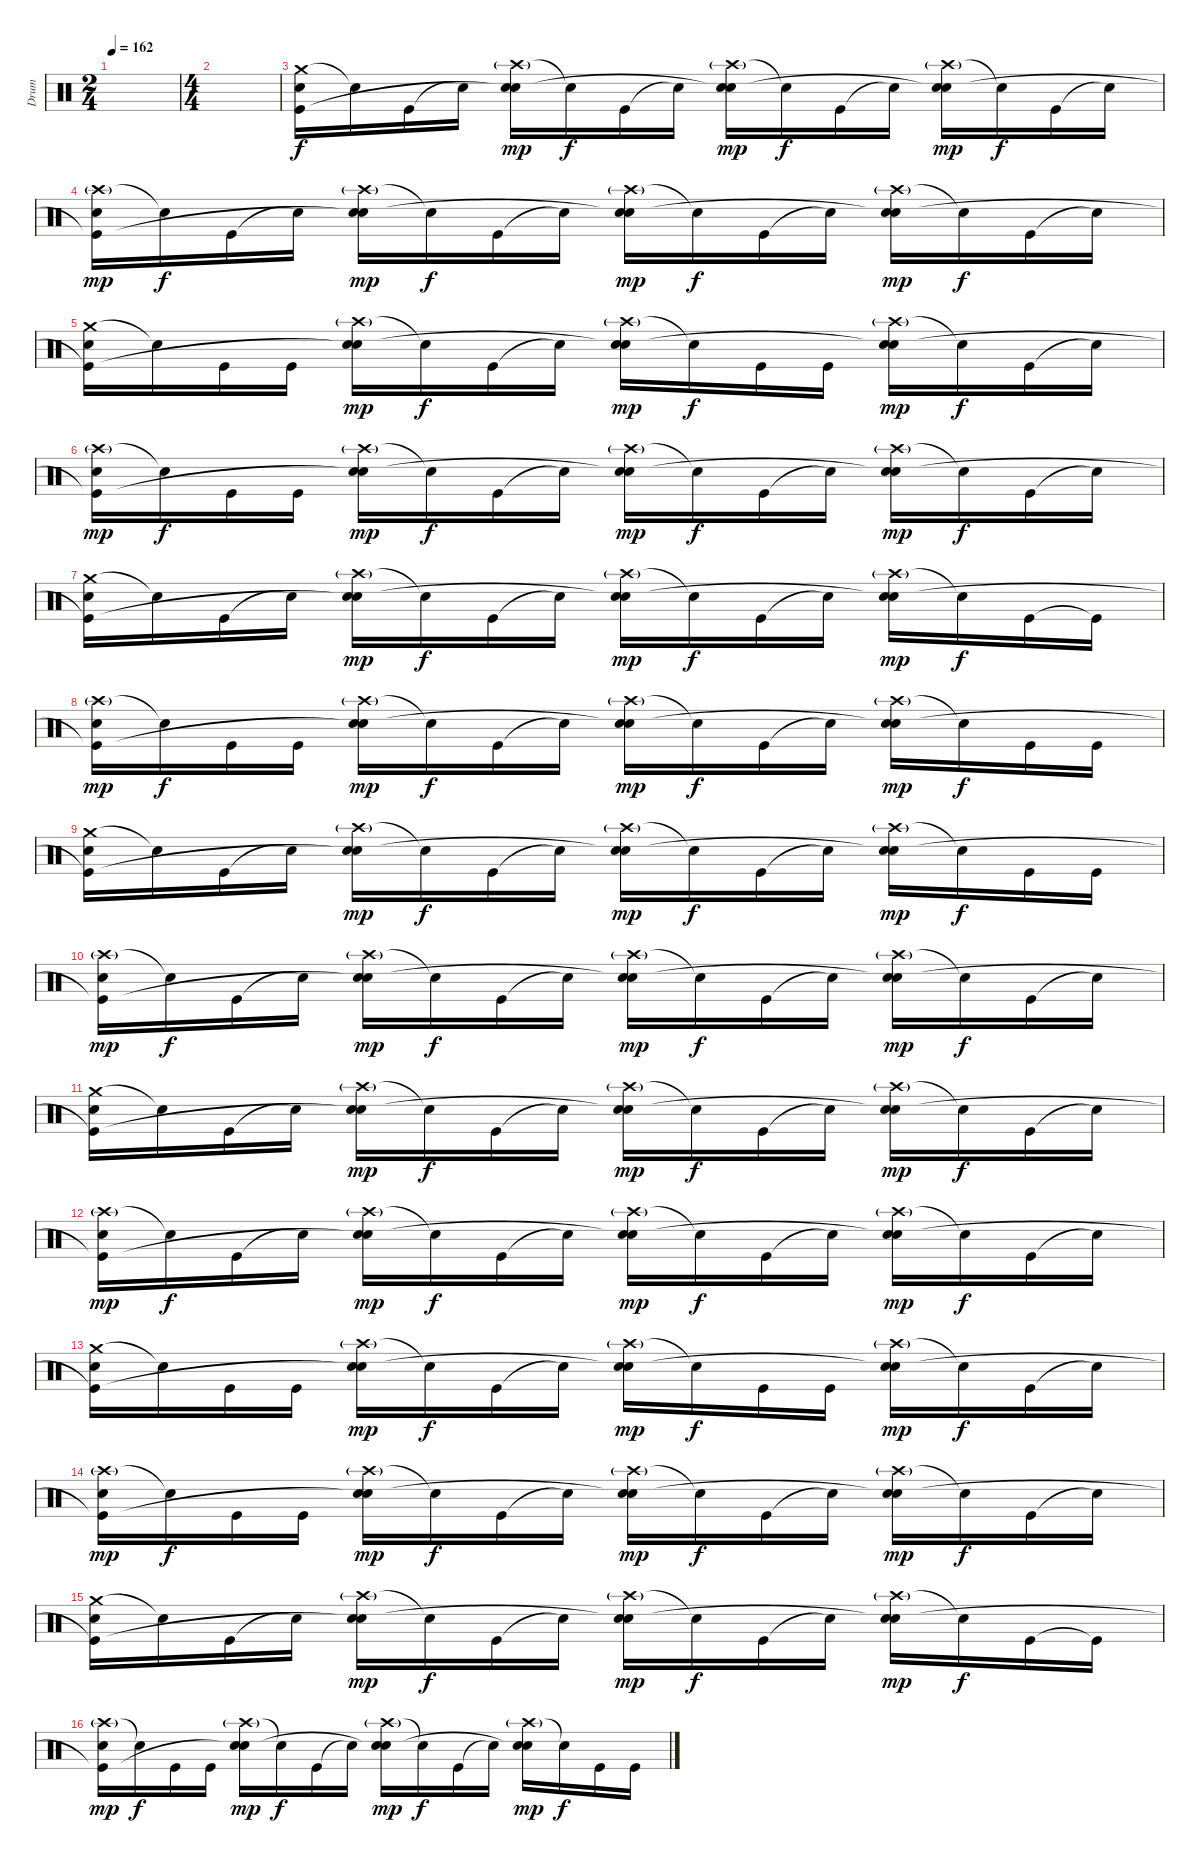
\track ("Drum" "Drum") {instrument percussion}
\staff {score}
\articulation defaults
\ts (2 4)
\tempo 162
\clef neutral
\ks c
|
\ts (4 4)
|
("Crash medium (hit)" "Electric Snare (hit)" "Kick (hit)").16 "Snare (hit)"{t}.16 "Kick (hit)".16 "Snare (hit)"{t}.16 ("Crash high (hit)"{g} "Electric Snare (hit)" "Snare (hit)"{t}).16{dy mp} "Snare (hit)"{t}.16{dy f} "Kick (hit)".16 "Snare (hit)"{t}.16 ("Crash high (hit)"{g} "Electric Snare (hit)" "Snare (hit)"{t}).16{dy mp} "Snare (hit)"{t}.16{dy f} "Kick (hit)".16 "Snare (hit)"{t}.16 ("Crash high (hit)"{g} "Electric Snare (hit)" "Snare (hit)"{t}).16{dy mp} "Snare (hit)"{t}.16{dy f} "Kick (hit)".16 "Snare (hit)"{t}.16 |
("Crash high (hit)"{g} "Electric Snare (hit)" "Kick (hit)"{t}).16{dy mp} "Snare (hit)"{t}.16{dy f} "Kick (hit)".16 "Snare (hit)"{t}.16 ("Crash high (hit)"{g} "Electric Snare (hit)" "Snare (hit)"{t}).16{dy mp} "Snare (hit)"{t}.16{dy f} "Kick (hit)".16 "Snare (hit)"{t}.16 ("Crash high (hit)"{g} "Electric Snare (hit)" "Snare (hit)"{t}).16{dy mp} "Snare (hit)"{t}.16{dy f} "Kick (hit)".16 "Snare (hit)"{t}.16 ("Crash high (hit)"{g} "Electric Snare (hit)" "Snare (hit)"{t}).16{dy mp} "Snare (hit)"{t}.16{dy f} "Kick (hit)".16 "Snare (hit)"{t}.16 |
("Crash medium (hit)" "Electric Snare (hit)" "Kick (hit)"{t}).16 "Snare (hit)"{t}.16 "Kick (hit)".16 "Kick (hit)".16 ("Crash high (hit)"{g} "Electric Snare (hit)" "Snare (hit)"{t}).16{dy mp} "Snare (hit)"{t}.16{dy f} "Kick (hit)".16 "Snare (hit)"{t}.16 ("Crash high (hit)"{g} "Electric Snare (hit)" "Snare (hit)"{t}).16{dy mp} "Snare (hit)"{t}.16{dy f} "Kick (hit)".16 "Kick (hit)".16 ("Crash high (hit)"{g} "Electric Snare (hit)" "Snare (hit)"{t}).16{dy mp} "Snare (hit)"{t}.16{dy f} "Kick (hit)".16 "Snare (hit)"{t}.16 |
("Crash high (hit)"{g} "Electric Snare (hit)" "Kick (hit)"{t}).16{dy mp} "Snare (hit)"{t}.16{dy f} "Kick (hit)".16 "Kick (hit)".16 ("Crash high (hit)"{g} "Electric Snare (hit)" "Snare (hit)"{t}).16{dy mp} "Snare (hit)"{t}.16{dy f} "Kick (hit)".16 "Snare (hit)"{t}.16 ("Crash high (hit)"{g} "Electric Snare (hit)" "Snare (hit)"{t}).16{dy mp} "Snare (hit)"{t}.16{dy f} "Kick (hit)".16 "Snare (hit)"{t}.16 ("Crash high (hit)"{g} "Electric Snare (hit)" "Snare (hit)"{t}).16{dy mp} "Snare (hit)"{t}.16{dy f} "Kick (hit)".16 "Snare (hit)"{t}.16 |
("Crash medium (hit)" "Electric Snare (hit)" "Kick (hit)"{t}).16 "Snare (hit)"{t}.16 "Kick (hit)".16 "Snare (hit)"{t}.16 ("Crash high (hit)"{g} "Electric Snare (hit)" "Snare (hit)"{t}).16{dy mp} "Snare (hit)"{t}.16{dy f} "Kick (hit)".16 "Snare (hit)"{t}.16 ("Crash high (hit)"{g} "Electric Snare (hit)" "Snare (hit)"{t}).16{dy mp} "Snare (hit)"{t}.16{dy f} "Kick (hit)".16 "Snare (hit)"{t}.16 ("Crash high (hit)"{g} "Electric Snare (hit)" "Snare (hit)"{t}).16{dy mp} "Snare (hit)"{t}.16{dy f} "Kick (hit)".16 "Kick (hit)"{t}.16 |
("Crash high (hit)"{g} "Electric Snare (hit)" "Kick (hit)"{t}).16{dy mp} "Snare (hit)"{t}.16{dy f} "Kick (hit)".16 "Kick (hit)".16 ("Crash high (hit)"{g} "Electric Snare (hit)" "Snare (hit)"{t}).16{dy mp} "Snare (hit)"{t}.16{dy f} "Kick (hit)".16 "Snare (hit)"{t}.16 ("Crash high (hit)"{g} "Electric Snare (hit)" "Snare (hit)"{t}).16{dy mp} "Snare (hit)"{t}.16{dy f} "Kick (hit)".16 "Snare (hit)"{t}.16 ("Crash high (hit)"{g} "Electric Snare (hit)" "Snare (hit)"{t}).16{dy mp} "Snare (hit)"{t}.16{dy f} "Kick (hit)".16 "Kick (hit)".16 |
("Crash medium (hit)" "Electric Snare (hit)" "Kick (hit)"{t}).16 "Snare (hit)"{t}.16 "Kick (hit)".16 "Snare (hit)"{t}.16 ("Crash high (hit)"{g} "Electric Snare (hit)" "Snare (hit)"{t}).16{dy mp} "Snare (hit)"{t}.16{dy f} "Kick (hit)".16 "Snare (hit)"{t}.16 ("Crash high (hit)"{g} "Electric Snare (hit)" "Snare (hit)"{t}).16{dy mp} "Snare (hit)"{t}.16{dy f} "Kick (hit)".16 "Snare (hit)"{t}.16 ("Crash high (hit)"{g} "Electric Snare (hit)" "Snare (hit)"{t}).16{dy mp} "Snare (hit)"{t}.16{dy f} "Kick (hit)".16 "Kick (hit)".16 |
("Crash high (hit)"{g} "Electric Snare (hit)" "Kick (hit)"{t}).16{dy mp} "Snare (hit)"{t}.16{dy f} "Kick (hit)".16 "Snare (hit)"{t}.16 ("Crash high (hit)"{g} "Electric Snare (hit)" "Snare (hit)"{t}).16{dy mp} "Snare (hit)"{t}.16{dy f} "Kick (hit)".16 "Snare (hit)"{t}.16 ("Crash high (hit)"{g} "Electric Snare (hit)" "Snare (hit)"{t}).16{dy mp} "Snare (hit)"{t}.16{dy f} "Kick (hit)".16 "Snare (hit)"{t}.16 ("Crash high (hit)"{g} "Electric Snare (hit)" "Snare (hit)"{t}).16{dy mp} "Snare (hit)"{t}.16{dy f} "Kick (hit)".16 "Snare (hit)"{t}.16 |
("Crash medium (hit)" "Electric Snare (hit)" "Kick (hit)"{t}).16 "Snare (hit)"{t}.16 "Kick (hit)".16 "Snare (hit)"{t}.16 ("Crash high (hit)"{g} "Electric Snare (hit)" "Snare (hit)"{t}).16{dy mp} "Snare (hit)"{t}.16{dy f} "Kick (hit)".16 "Snare (hit)"{t}.16 ("Crash high (hit)"{g} "Electric Snare (hit)" "Snare (hit)"{t}).16{dy mp} "Snare (hit)"{t}.16{dy f} "Kick (hit)".16 "Snare (hit)"{t}.16 ("Crash high (hit)"{g} "Electric Snare (hit)" "Snare (hit)"{t}).16{dy mp} "Snare (hit)"{t}.16{dy f} "Kick (hit)".16 "Snare (hit)"{t}.16 |
("Crash high (hit)"{g} "Electric Snare (hit)" "Kick (hit)"{t}).16{dy mp} "Snare (hit)"{t}.16{dy f} "Kick (hit)".16 "Snare (hit)"{t}.16 ("Crash high (hit)"{g} "Electric Snare (hit)" "Snare (hit)"{t}).16{dy mp} "Snare (hit)"{t}.16{dy f} "Kick (hit)".16 "Snare (hit)"{t}.16 ("Crash high (hit)"{g} "Electric Snare (hit)" "Snare (hit)"{t}).16{dy mp} "Snare (hit)"{t}.16{dy f} "Kick (hit)".16 "Snare (hit)"{t}.16 ("Crash high (hit)"{g} "Electric Snare (hit)" "Snare (hit)"{t}).16{dy mp} "Snare (hit)"{t}.16{dy f} "Kick (hit)".16 "Snare (hit)"{t}.16 |
("Crash medium (hit)" "Electric Snare (hit)" "Kick (hit)"{t}).16 "Snare (hit)"{t}.16 "Kick (hit)".16 "Kick (hit)".16 ("Crash high (hit)"{g} "Electric Snare (hit)" "Snare (hit)"{t}).16{dy mp} "Snare (hit)"{t}.16{dy f} "Kick (hit)".16 "Snare (hit)"{t}.16 ("Crash high (hit)"{g} "Electric Snare (hit)" "Snare (hit)"{t}).16{dy mp} "Snare (hit)"{t}.16{dy f} "Kick (hit)".16 "Kick (hit)".16 ("Crash high (hit)"{g} "Electric Snare (hit)" "Snare (hit)"{t}).16{dy mp} "Snare (hit)"{t}.16{dy f} "Kick (hit)".16 "Snare (hit)"{t}.16 |
("Crash high (hit)"{g} "Electric Snare (hit)" "Kick (hit)"{t}).16{dy mp} "Snare (hit)"{t}.16{dy f} "Kick (hit)".16 "Kick (hit)".16 ("Crash high (hit)"{g} "Electric Snare (hit)" "Snare (hit)"{t}).16{dy mp} "Snare (hit)"{t}.16{dy f} "Kick (hit)".16 "Snare (hit)"{t}.16 ("Crash high (hit)"{g} "Electric Snare (hit)" "Snare (hit)"{t}).16{dy mp} "Snare (hit)"{t}.16{dy f} "Kick (hit)".16 "Snare (hit)"{t}.16 ("Crash high (hit)"{g} "Electric Snare (hit)" "Snare (hit)"{t}).16{dy mp} "Snare (hit)"{t}.16{dy f} "Kick (hit)".16 "Snare (hit)"{t}.16 |
("Crash medium (hit)" "Electric Snare (hit)" "Kick (hit)"{t}).16 "Snare (hit)"{t}.16 "Kick (hit)".16 "Snare (hit)"{t}.16 ("Crash high (hit)"{g} "Electric Snare (hit)" "Snare (hit)"{t}).16{dy mp} "Snare (hit)"{t}.16{dy f} "Kick (hit)".16 "Snare (hit)"{t}.16 ("Crash high (hit)"{g} "Electric Snare (hit)" "Snare (hit)"{t}).16{dy mp} "Snare (hit)"{t}.16{dy f} "Kick (hit)".16 "Snare (hit)"{t}.16 ("Crash high (hit)"{g} "Electric Snare (hit)" "Snare (hit)"{t}).16{dy mp} "Snare (hit)"{t}.16{dy f} "Kick (hit)".16 "Kick (hit)"{t}.16 |
("Crash high (hit)"{g} "Electric Snare (hit)" "Kick (hit)"{t}).16{dy mp} "Snare (hit)"{t}.16{dy f} "Kick (hit)".16 "Kick (hit)".16 ("Crash high (hit)"{g} "Electric Snare (hit)" "Snare (hit)"{t}).16{dy mp} "Snare (hit)"{t}.16{dy f} "Kick (hit)".16 "Snare (hit)"{t}.16 ("Crash high (hit)"{g} "Electric Snare (hit)" "Snare (hit)"{t}).16{dy mp} "Snare (hit)"{t}.16{dy f} "Kick (hit)".16 "Snare (hit)"{t}.16 ("Crash high (hit)"{g} "Electric Snare (hit)" "Snare (hit)"{t}).16{dy mp} "Snare (hit)"{t}.16{dy f} "Kick (hit)".16 "Kick (hit)".16
